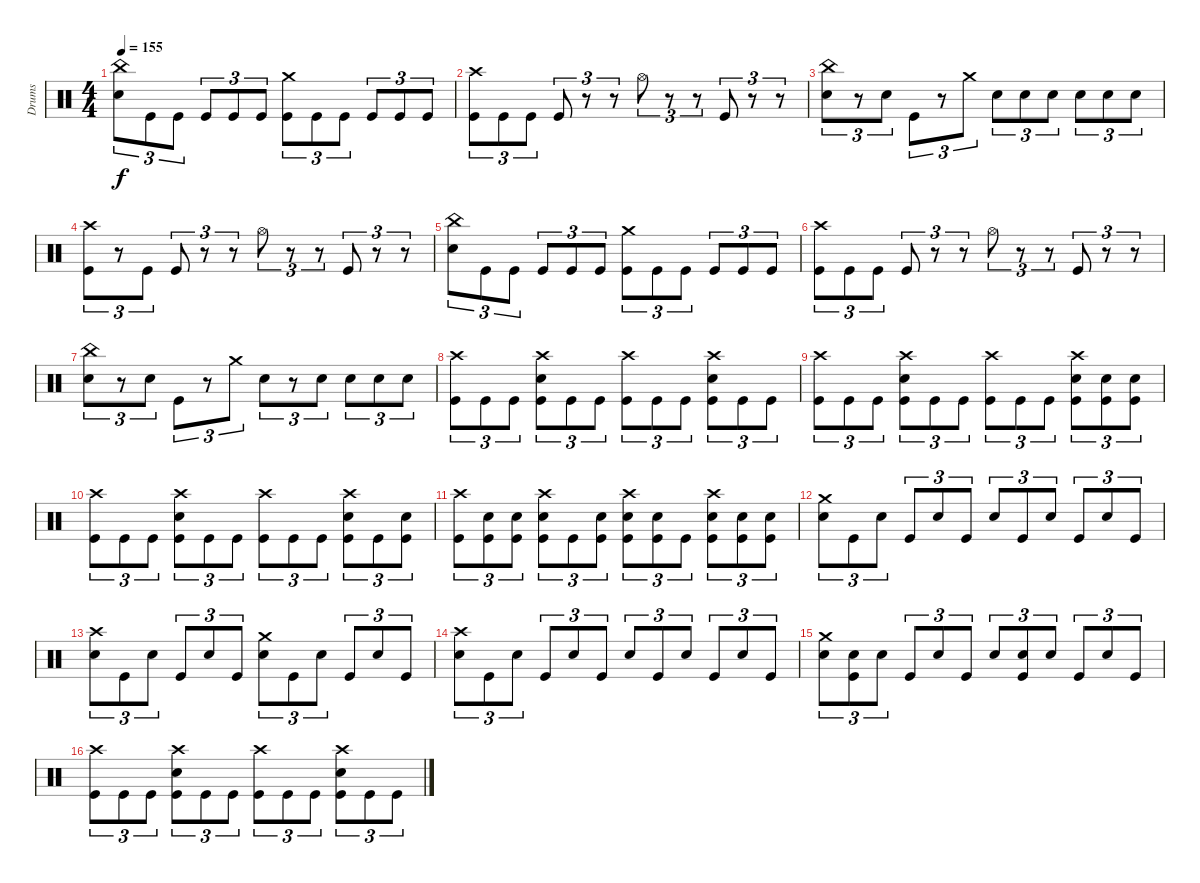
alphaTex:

\track ("Drums" "Drums") {instrument percussion}
\staff {score}
\articulation defaults
\ts (4 4)
\tempo 155
\clef neutral
\ks c
("China (hit)" "Electric Snare (hit)").8{tu (3 2) dy f} "Kick (hit)".8{tu (3 2)} "Kick (hit)".8{tu (3 2)} "Kick (hit)".8{tu (3 2)} "Kick (hit)".8{tu (3 2)} "Kick (hit)".8{tu (3 2)} ("Crash medium (hit)" "Kick (hit)").8{tu (3 2)} "Kick (hit)".8{tu (3 2)} "Kick (hit)".8{tu (3 2)} "Kick (hit)".8{tu (3 2)} "Kick (hit)".8{tu (3 2)} "Kick (hit)".8{tu (3 2)} |
("Crash high (hit)" "Kick (hit)").8{tu (3 2)} "Kick (hit)".8{tu (3 2)} "Kick (hit)".8{tu (3 2)} "Kick (hit)".8{tu (3 2)} r.8{tu (3 2)} r.8{tu (3 2)} "Hi-Hat (open)".8{tu (3 2)} r.8{tu (3 2)} r.8{tu (3 2)} "Kick (hit)".8{tu (3 2)} r.8{tu (3 2)} r.8{tu (3 2)} |
("China (hit)" "Electric Snare (hit)").8{tu (3 2)} r.8{tu (3 2)} "Electric Snare (hit)".8{tu (3 2)} "Kick (hit)".8{tu (3 2)} r.8{tu (3 2)} "Crash medium (hit)".8{tu (3 2)} "Electric Snare (hit)".8{tu (3 2)} "Electric Snare (hit)".8{tu (3 2)} "Electric Snare (hit)".8{tu (3 2)} "Electric Snare (hit)".8{tu (3 2)} "Electric Snare (hit)".8{tu (3 2)} "Electric Snare (hit)".8{tu (3 2)} |
("Crash high (hit)" "Kick (hit)").8{tu (3 2)} r.8{tu (3 2)} "Kick (hit)".8{tu (3 2)} "Kick (hit)".8{tu (3 2)} r.8{tu (3 2)} r.8{tu (3 2)} "Hi-Hat (open)".8{tu (3 2)} r.8{tu (3 2)} r.8{tu (3 2)} "Kick (hit)".8{tu (3 2)} r.8{tu (3 2)} r.8{tu (3 2)} |
("China (hit)" "Electric Snare (hit)").8{tu (3 2)} "Kick (hit)".8{tu (3 2)} "Kick (hit)".8{tu (3 2)} "Kick (hit)".8{tu (3 2)} "Kick (hit)".8{tu (3 2)} "Kick (hit)".8{tu (3 2)} ("Crash medium (hit)" "Kick (hit)").8{tu (3 2)} "Kick (hit)".8{tu (3 2)} "Kick (hit)".8{tu (3 2)} "Kick (hit)".8{tu (3 2)} "Kick (hit)".8{tu (3 2)} "Kick (hit)".8{tu (3 2)} |
("Crash high (hit)" "Kick (hit)").8{tu (3 2)} "Kick (hit)".8{tu (3 2)} "Kick (hit)".8{tu (3 2)} "Kick (hit)".8{tu (3 2)} r.8{tu (3 2)} r.8{tu (3 2)} "Hi-Hat (open)".8{tu (3 2)} r.8{tu (3 2)} r.8{tu (3 2)} "Kick (hit)".8{tu (3 2)} r.8{tu (3 2)} r.8{tu (3 2)} |
("China (hit)" "Electric Snare (hit)").8{tu (3 2)} r.8{tu (3 2)} "Electric Snare (hit)".8{tu (3 2)} "Kick (hit)".8{tu (3 2)} r.8{tu (3 2)} "Crash medium (hit)".8{tu (3 2)} "Electric Snare (hit)".8{tu (3 2)} r.8{tu (3 2)} "Electric Snare (hit)".8{tu (3 2)} "Electric Snare (hit)".8{tu (3 2)} "Electric Snare (hit)".8{tu (3 2)} "Electric Snare (hit)".8{tu (3 2)} |
("Crash high (hit)" "Kick (hit)").8{tu (3 2)} "Kick (hit)".8{tu (3 2)} "Kick (hit)".8{tu (3 2)} ("Crash high (hit)" "Electric Snare (hit)" "Kick (hit)").8{tu (3 2)} "Kick (hit)".8{tu (3 2)} "Kick (hit)".8{tu (3 2)} ("Crash high (hit)" "Kick (hit)").8{tu (3 2)} "Kick (hit)".8{tu (3 2)} "Kick (hit)".8{tu (3 2)} ("Crash high (hit)" "Electric Snare (hit)" "Kick (hit)").8{tu (3 2)} "Kick (hit)".8{tu (3 2)} "Kick (hit)".8{tu (3 2)} |
("Crash high (hit)" "Kick (hit)").8{tu (3 2)} "Kick (hit)".8{tu (3 2)} "Kick (hit)".8{tu (3 2)} ("Crash high (hit)" "Electric Snare (hit)" "Kick (hit)").8{tu (3 2)} "Kick (hit)".8{tu (3 2)} "Kick (hit)".8{tu (3 2)} ("Crash high (hit)" "Kick (hit)").8{tu (3 2)} "Kick (hit)".8{tu (3 2)} "Kick (hit)".8{tu (3 2)} ("Crash high (hit)" "Electric Snare (hit)" "Kick (hit)").8{tu (3 2)} ("Electric Snare (hit)" "Kick (hit)").8{tu (3 2)} ("Electric Snare (hit)" "Kick (hit)").8{tu (3 2)} |
("Crash high (hit)" "Kick (hit)").8{tu (3 2)} "Kick (hit)".8{tu (3 2)} "Kick (hit)".8{tu (3 2)} ("Crash high (hit)" "Electric Snare (hit)" "Kick (hit)").8{tu (3 2)} "Kick (hit)".8{tu (3 2)} "Kick (hit)".8{tu (3 2)} ("Crash high (hit)" "Kick (hit)").8{tu (3 2)} "Kick (hit)".8{tu (3 2)} "Kick (hit)".8{tu (3 2)} ("Crash high (hit)" "Electric Snare (hit)" "Kick (hit)").8{tu (3 2)} "Kick (hit)".8{tu (3 2)} ("Electric Snare (hit)" "Kick (hit)").8{tu (3 2)} |
("Crash high (hit)" "Kick (hit)").8{tu (3 2)} ("Electric Snare (hit)" "Kick (hit)").8{tu (3 2)} ("Electric Snare (hit)" "Kick (hit)").8{tu (3 2)} ("Crash high (hit)" "Electric Snare (hit)" "Kick (hit)").8{tu (3 2)} "Kick (hit)".8{tu (3 2)} ("Electric Snare (hit)" "Kick (hit)").8{tu (3 2)} ("Crash high (hit)" "Electric Snare (hit)" "Kick (hit)").8{tu (3 2)} ("Electric Snare (hit)" "Kick (hit)").8{tu (3 2)} "Kick (hit)".8{tu (3 2)} ("Crash high (hit)" "Electric Snare (hit)" "Kick (hit)").8{tu (3 2)} ("Electric Snare (hit)" "Kick (hit)").8{tu (3 2)} ("Electric Snare (hit)" "Kick (hit)").8{tu (3 2)} |
("Crash medium (hit)" "Electric Snare (hit)").8{tu (3 2)} "Kick (hit)".8{tu (3 2)} "Electric Snare (hit)".8{tu (3 2)} "Kick (hit)".8{tu (3 2)} "Electric Snare (hit)".8{tu (3 2)} "Kick (hit)".8{tu (3 2)} "Electric Snare (hit)".8{tu (3 2)} "Kick (hit)".8{tu (3 2)} "Electric Snare (hit)".8{tu (3 2)} "Kick (hit)".8{tu (3 2)} "Electric Snare (hit)".8{tu (3 2)} "Kick (hit)".8{tu (3 2)} |
("Crash high (hit)" "Electric Snare (hit)").8{tu (3 2)} "Kick (hit)".8{tu (3 2)} "Electric Snare (hit)".8{tu (3 2)} "Kick (hit)".8{tu (3 2)} "Electric Snare (hit)".8{tu (3 2)} "Kick (hit)".8{tu (3 2)} ("Crash medium (hit)" "Electric Snare (hit)").8{tu (3 2)} "Kick (hit)".8{tu (3 2)} "Electric Snare (hit)".8{tu (3 2)} "Kick (hit)".8{tu (3 2)} "Electric Snare (hit)".8{tu (3 2)} "Kick (hit)".8{tu (3 2)} |
("Crash high (hit)" "Electric Snare (hit)").8{tu (3 2)} "Kick (hit)".8{tu (3 2)} "Electric Snare (hit)".8{tu (3 2)} "Kick (hit)".8{tu (3 2)} "Electric Snare (hit)".8{tu (3 2)} "Kick (hit)".8{tu (3 2)} "Electric Snare (hit)".8{tu (3 2)} "Kick (hit)".8{tu (3 2)} "Electric Snare (hit)".8{tu (3 2)} "Kick (hit)".8{tu (3 2)} "Electric Snare (hit)".8{tu (3 2)} "Kick (hit)".8{tu (3 2)} |
("Crash medium (hit)" "Electric Snare (hit)").8{tu (3 2)} ("Electric Snare (hit)" "Kick (hit)").8{tu (3 2)} "Electric Snare (hit)".8{tu (3 2)} "Kick (hit)".8{tu (3 2)} "Electric Snare (hit)".8{tu (3 2)} "Kick (hit)".8{tu (3 2)} "Electric Snare (hit)".8{tu (3 2)} ("Electric Snare (hit)" "Kick (hit)").8{tu (3 2)} "Electric Snare (hit)".8{tu (3 2)} "Kick (hit)".8{tu (3 2)} "Electric Snare (hit)".8{tu (3 2)} "Kick (hit)".8{tu (3 2)} |
("Crash high (hit)" "Kick (hit)").8{tu (3 2)} "Kick (hit)".8{tu (3 2)} "Kick (hit)".8{tu (3 2)} ("Crash high (hit)" "Electric Snare (hit)" "Kick (hit)").8{tu (3 2)} "Kick (hit)".8{tu (3 2)} "Kick (hit)".8{tu (3 2)} ("Crash high (hit)" "Kick (hit)").8{tu (3 2)} "Kick (hit)".8{tu (3 2)} "Kick (hit)".8{tu (3 2)} ("Crash high (hit)" "Electric Snare (hit)" "Kick (hit)").8{tu (3 2)} "Kick (hit)".8{tu (3 2)} "Kick (hit)".8{tu (3 2)}
